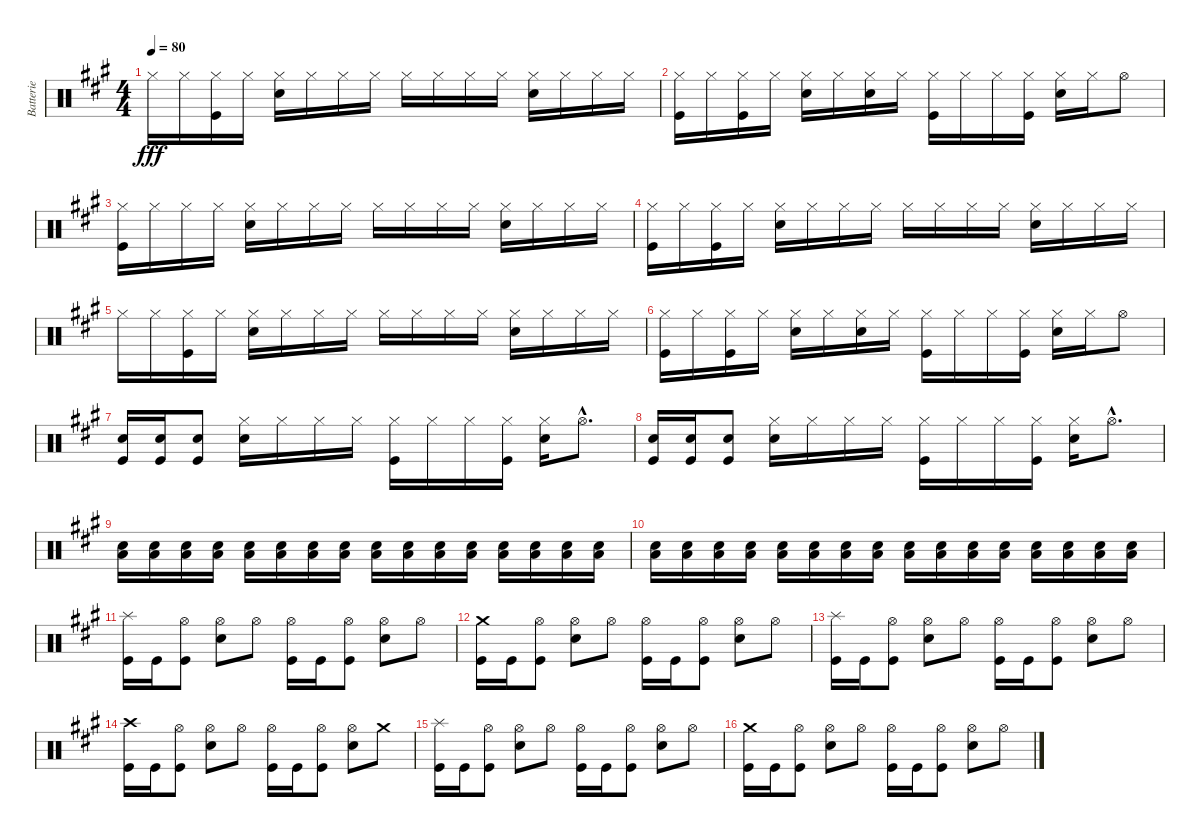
\track ("Batterie" "Batterie") {instrument percussion}
\staff {score}
\articulation defaults
\ts (4 4)
\tempo 80
\clef neutral
\ks a "Hi-Hat (closed)".16{dy fff} "Hi-Hat (closed)".16
("Hi-Hat (closed)" "Kick (hit)").16 "Hi-Hat (closed)".16 ("Hi-Hat (closed)" "Snare (hit) 2").16 "Hi-Hat (closed)".16 "Hi-Hat (closed)".16 "Hi-Hat (closed)".16 "Hi-Hat (closed)".16 "Hi-Hat (closed)".16 "Hi-Hat (closed)".16 "Hi-Hat (closed)".16 ("Hi-Hat (closed)" "Snare (hit) 2").16 "Hi-Hat (closed)".16 "Hi-Hat (closed)".16 "Hi-Hat (closed)".16 |
("Hi-Hat (closed)" "Kick (hit)").16 "Hi-Hat (closed)".16 ("Hi-Hat (closed)" "Kick (hit)").16 "Hi-Hat (closed)".16 ("Hi-Hat (closed)" "Snare (hit) 2").16 "Hi-Hat (closed)".16 ("Hi-Hat (closed)" "Snare (hit) 2").16 "Hi-Hat (closed)".16 ("Hi-Hat (closed)" "Kick (hit)").16 "Hi-Hat (closed)".16 "Hi-Hat (closed)".16 ("Hi-Hat (closed)" "Kick (hit)").16 ("Hi-Hat (closed)" "Snare (hit) 2").16 "Hi-Hat (closed)".16 "Hi-Hat (open)".8 |
("Hi-Hat (closed)" "Kick (hit)").16 "Hi-Hat (closed)".16 "Hi-Hat (closed)".16 "Hi-Hat (closed)".16 ("Hi-Hat (closed)" "Snare (hit) 2").16 "Hi-Hat (closed)".16 "Hi-Hat (closed)".16 "Hi-Hat (closed)".16 "Hi-Hat (closed)".16 "Hi-Hat (closed)".16 "Hi-Hat (closed)".16 "Hi-Hat (closed)".16 ("Hi-Hat (closed)" "Snare (hit) 2").16 "Hi-Hat (closed)".16 "Hi-Hat (closed)".16 "Hi-Hat (closed)".16 |
("Hi-Hat (closed)" "Kick (hit)").16 "Hi-Hat (closed)".16 ("Hi-Hat (closed)" "Kick (hit)").16 "Hi-Hat (closed)".16 ("Hi-Hat (closed)" "Snare (hit) 2").16 "Hi-Hat (closed)".16 "Hi-Hat (closed)".16 "Hi-Hat (closed)".16 "Hi-Hat (closed)".16 "Hi-Hat (closed)".16 "Hi-Hat (closed)".16 "Hi-Hat (closed)".16 ("Hi-Hat (closed)" "Snare (hit) 2").16 "Hi-Hat (closed)".16 "Hi-Hat (closed)".16 "Hi-Hat (closed)".16 |
"Hi-Hat (closed)".16 "Hi-Hat (closed)".16 ("Hi-Hat (closed)" "Kick (hit)").16 "Hi-Hat (closed)".16 ("Hi-Hat (closed)" "Snare (hit) 2").16 "Hi-Hat (closed)".16 "Hi-Hat (closed)".16 "Hi-Hat (closed)".16 "Hi-Hat (closed)".16 "Hi-Hat (closed)".16 "Hi-Hat (closed)".16 "Hi-Hat (closed)".16 ("Hi-Hat (closed)" "Snare (hit) 2").16 "Hi-Hat (closed)".16 "Hi-Hat (closed)".16 "Hi-Hat (closed)".16 |
("Hi-Hat (closed)" "Kick (hit)").16 "Hi-Hat (closed)".16 ("Hi-Hat (closed)" "Kick (hit)").16 "Hi-Hat (closed)".16 ("Hi-Hat (closed)" "Snare (hit) 2").16 "Hi-Hat (closed)".16 ("Hi-Hat (closed)" "Snare (hit) 2").16 "Hi-Hat (closed)".16 ("Hi-Hat (closed)" "Kick (hit)").16 "Hi-Hat (closed)".16 "Hi-Hat (closed)".16 ("Hi-Hat (closed)" "Kick (hit)").16 ("Hi-Hat (closed)" "Snare (hit) 2").16 "Hi-Hat (closed)".16 "Hi-Hat (open)".8 |
("Snare (hit) 2" "Kick (hit)").16 ("Snare (hit) 2" "Kick (hit)").16 ("Snare (hit) 2" "Kick (hit)").8 ("Hi-Hat (closed)" "Snare (hit) 2").16 "Hi-Hat (closed)".16 "Hi-Hat (closed)".16 "Hi-Hat (closed)".16 ("Hi-Hat (closed)" "Kick (hit)").16 "Hi-Hat (closed)".16 "Hi-Hat (closed)".16 ("Hi-Hat (closed)" "Kick (hit)").16 ("Hi-Hat (closed)" "Snare (hit) 2").16 "Hi-Hat (open)"{hac}.8{d} |
("Snare (hit) 2" "Kick (hit)").16 ("Snare (hit) 2" "Kick (hit)").16 ("Snare (hit) 2" "Kick (hit)").8 ("Hi-Hat (closed)" "Snare (hit) 2").16 "Hi-Hat (closed)".16 "Hi-Hat (closed)".16 "Hi-Hat (closed)".16 ("Hi-Hat (closed)" "Kick (hit)").16 "Hi-Hat (closed)".16 "Hi-Hat (closed)".16 ("Hi-Hat (closed)" "Kick (hit)").16 ("Hi-Hat (closed)" "Snare (hit) 2").16 "Hi-Hat (open)"{hac}.8{d} |
("Low Floor Tom (hit)" "Snare (hit) 2").16 ("Low Floor Tom (hit)" "Snare (hit) 2").16 ("Low Floor Tom (hit)" "Snare (hit) 2").16 ("Low Floor Tom (hit)" "Snare (hit) 2").16 ("Low Floor Tom (hit)" "Snare (hit) 2").16 ("Low Floor Tom (hit)" "Snare (hit) 2").16 ("Low Floor Tom (hit)" "Snare (hit) 2").16 ("Low Floor Tom (hit)" "Snare (hit) 2").16 ("Low Floor Tom (hit)" "Snare (hit) 2").16 ("Low Floor Tom (hit)" "Snare (hit) 2").16 ("Low Floor Tom (hit)" "Snare (hit) 2").16 ("Low Floor Tom (hit)" "Snare (hit) 2").16 ("Low Floor Tom (hit)" "Snare (hit) 2").16 ("Low Floor Tom (hit)" "Snare (hit) 2").16 ("Low Floor Tom (hit)" "Snare (hit) 2").16 ("Low Floor Tom (hit)" "Snare (hit) 2").16 |
("Low Floor Tom (hit)" "Snare (hit) 2").16 ("Low Floor Tom (hit)" "Snare (hit) 2").16 ("Low Floor Tom (hit)" "Snare (hit) 2").16 ("Low Floor Tom (hit)" "Snare (hit) 2").16 ("Low Floor Tom (hit)" "Snare (hit) 2").16 ("Low Floor Tom (hit)" "Snare (hit) 2").16 ("Low Floor Tom (hit)" "Snare (hit) 2").16 ("Low Floor Tom (hit)" "Snare (hit) 2").16 ("Low Floor Tom (hit)" "Snare (hit) 2").16 ("Low Floor Tom (hit)" "Snare (hit) 2").16 ("Low Floor Tom (hit)" "Snare (hit) 2").16 ("Low Floor Tom (hit)" "Snare (hit) 2").16 ("Low Floor Tom (hit)" "Snare (hit) 2").16 ("Low Floor Tom (hit)" "Snare (hit) 2").16 ("Low Floor Tom (hit)" "Snare (hit) 2").16 ("Low Floor Tom (hit)" "Snare (hit) 2").16 |
("Splash (hit)" "Kick (hit)").16 "Kick (hit)".16 ("Hi-Hat (open)" "Kick (hit)").8 ("Hi-Hat (open)" "Snare (hit) 2").8 "Hi-Hat (open)".8 ("Hi-Hat (open)" "Kick (hit)").16 "Kick (hit)".16 ("Hi-Hat (open)" "Kick (hit)").8 ("Hi-Hat (open)" "Snare (hit) 2").8 "Hi-Hat (open)".8 |
("Crash medium (hit)" "Kick (hit)").16 "Kick (hit)".16 ("Hi-Hat (open)" "Kick (hit)").8 ("Hi-Hat (open)" "Snare (hit) 2").8 "Hi-Hat (open)".8 ("Hi-Hat (open)" "Kick (hit)").16 "Kick (hit)".16 ("Hi-Hat (open)" "Kick (hit)").8 ("Hi-Hat (open)" "Snare (hit) 2").8 "Hi-Hat (open)".8 |
("Splash (hit)" "Kick (hit)").16 "Kick (hit)".16 ("Hi-Hat (open)" "Kick (hit)").8 ("Hi-Hat (open)" "Snare (hit) 2").8 "Hi-Hat (open)".8 ("Hi-Hat (open)" "Kick (hit)").16 "Kick (hit)".16 ("Hi-Hat (open)" "Kick (hit)").8 ("Hi-Hat (open)" "Snare (hit) 2").8 "Hi-Hat (open)".8 |
("Crash high (hit)" "Kick (hit)").16 "Kick (hit)".16 ("Hi-Hat (open)" "Kick (hit)").8 ("Hi-Hat (open)" "Snare (hit) 2").8 "Hi-Hat (open)".8 ("Hi-Hat (open)" "Kick (hit)").16 "Kick (hit)".16 ("Hi-Hat (open)" "Kick (hit)").8 ("Hi-Hat (open)" "Snare (hit) 2").8 "Crash medium (hit)".8 |
("Splash (hit)" "Kick (hit)").16 "Kick (hit)".16 ("Hi-Hat (open)" "Kick (hit)").8 ("Hi-Hat (open)" "Snare (hit) 2").8 "Hi-Hat (open)".8 ("Hi-Hat (open)" "Kick (hit)").16 "Kick (hit)".16 ("Hi-Hat (open)" "Kick (hit)").8 ("Hi-Hat (open)" "Snare (hit) 2").8 "Hi-Hat (open)".8 |
("Crash medium (hit)" "Kick (hit)").16 "Kick (hit)".16 ("Hi-Hat (open)" "Kick (hit)").8 ("Hi-Hat (open)" "Snare (hit) 2").8 "Hi-Hat (open)".8 ("Hi-Hat (open)" "Kick (hit)").16 "Kick (hit)".16 ("Hi-Hat (open)" "Kick (hit)").8 ("Hi-Hat (open)" "Snare (hit) 2").8 "Hi-Hat (open)".8
